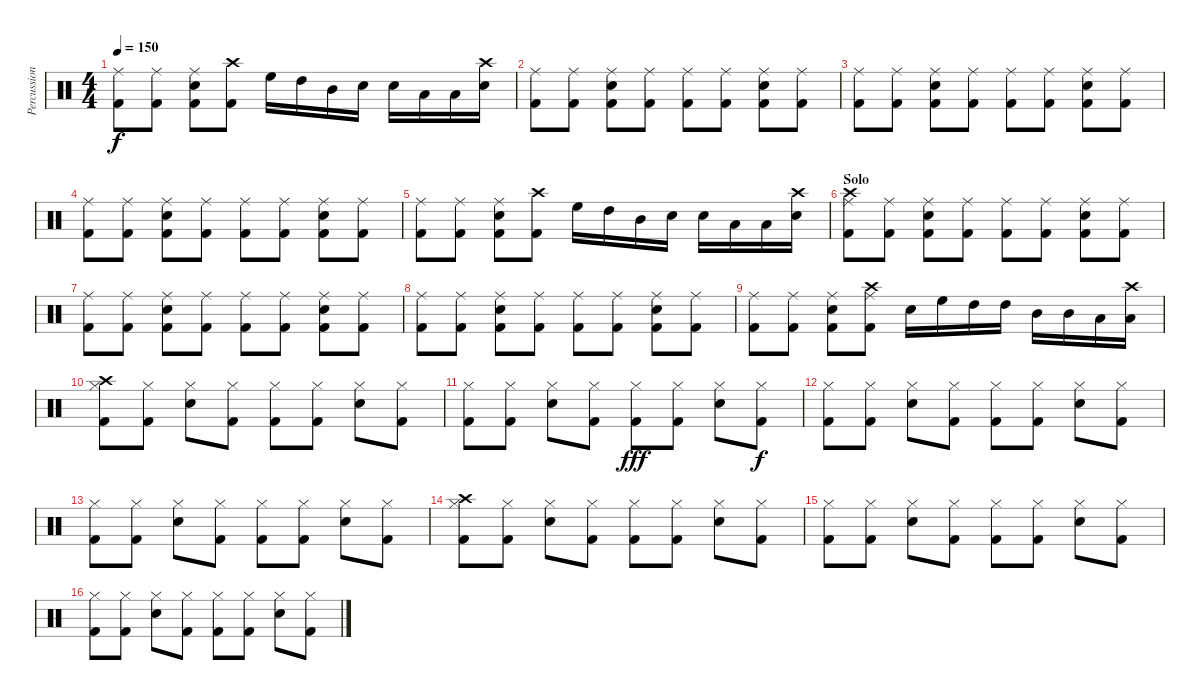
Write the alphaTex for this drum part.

\track ("Percussion" "Percussion") {instrument percussion}
\staff {score}
\articulation defaults
\ts (4 4)
\tempo 150
\clef neutral
\ks c
("Ride (middle)" "Kick (hit) 2").8{dy f} ("Ride (middle)" "Kick (hit) 2").8 ("Ride (middle)" "Snare (hit) 2" "Kick (hit) 2").8 ("Crash high (hit)" "Kick (hit) 2").8 "High Floor Tom (hit)".16 "High Tom (hit)".16 "Mid Tom (hit)".16 "Snare (hit) 2".16 "Snare (hit) 2".16 "Low Tom (hit)".16 "Low Tom (hit)".16 ("Crash high (hit)" "Snare (hit) 2").16 |
("Ride (middle)" "Kick (hit) 2").8 ("Ride (middle)" "Kick (hit) 2").8 ("Ride (middle)" "Snare (hit) 2" "Kick (hit) 2").8 ("Ride (middle)" "Kick (hit) 2").8 ("Ride (middle)" "Kick (hit) 2").8 ("Ride (middle)" "Kick (hit) 2").8 ("Ride (middle)" "Snare (hit) 2" "Kick (hit) 2").8 ("Ride (middle)" "Kick (hit) 2").8 |
("Ride (middle)" "Kick (hit) 2").8 ("Ride (middle)" "Kick (hit) 2").8 ("Ride (middle)" "Snare (hit) 2" "Kick (hit) 2").8 ("Ride (middle)" "Kick (hit) 2").8 ("Ride (middle)" "Kick (hit) 2").8 ("Ride (middle)" "Kick (hit) 2").8 ("Ride (middle)" "Snare (hit) 2" "Kick (hit) 2").8 ("Ride (middle)" "Kick (hit) 2").8 |
("Ride (middle)" "Kick (hit) 2").8 ("Ride (middle)" "Kick (hit) 2").8 ("Ride (middle)" "Snare (hit) 2" "Kick (hit) 2").8 ("Ride (middle)" "Kick (hit) 2").8 ("Ride (middle)" "Kick (hit) 2").8 ("Ride (middle)" "Kick (hit) 2").8 ("Ride (middle)" "Snare (hit) 2" "Kick (hit) 2").8 ("Ride (middle)" "Kick (hit) 2").8 |
("Ride (middle)" "Kick (hit) 2").8 ("Ride (middle)" "Kick (hit) 2").8 ("Ride (middle)" "Snare (hit) 2" "Kick (hit) 2").8 ("Crash high (hit)" "Kick (hit) 2").8 "High Floor Tom (hit)".16 "High Tom (hit)".16 "Mid Tom (hit)".16 "Snare (hit) 2".16 "Snare (hit) 2".16 "Low Tom (hit)".16 "Low Tom (hit)".16 ("Crash high (hit)" "Snare (hit) 2").16 |
\section ("" "Solo")
("Crash high (hit)" "Ride (middle)" "Kick (hit) 2").8 ("Ride (middle)" "Kick (hit) 2").8 ("Ride (middle)" "Snare (hit) 2" "Kick (hit) 2").8 ("Ride (middle)" "Kick (hit) 2").8 ("Ride (middle)" "Kick (hit) 2").8 ("Ride (middle)" "Kick (hit) 2").8 ("Ride (middle)" "Snare (hit) 2" "Kick (hit) 2").8 ("Ride (middle)" "Kick (hit) 2").8 |
("Ride (middle)" "Kick (hit) 2").8 ("Ride (middle)" "Kick (hit) 2").8 ("Ride (middle)" "Snare (hit) 2" "Kick (hit) 2").8 ("Ride (middle)" "Kick (hit) 2").8 ("Ride (middle)" "Kick (hit) 2").8 ("Ride (middle)" "Kick (hit) 2").8 ("Ride (middle)" "Snare (hit) 2" "Kick (hit) 2").8 ("Ride (middle)" "Kick (hit) 2").8 |
("Ride (middle)" "Kick (hit) 2").8 ("Ride (middle)" "Kick (hit) 2").8 ("Ride (middle)" "Snare (hit) 2" "Kick (hit) 2").8 ("Ride (middle)" "Kick (hit) 2").8 ("Ride (middle)" "Kick (hit) 2").8 ("Ride (middle)" "Kick (hit) 2").8 ("Ride (middle)" "Snare (hit) 2" "Kick (hit) 2").8 ("Ride (middle)" "Kick (hit) 2").8 |
("Ride (middle)" "Kick (hit) 2").8 ("Ride (middle)" "Kick (hit) 2").8 ("Ride (middle)" "Snare (hit) 2" "Kick (hit) 2").8 ("Ride (middle)" "Crash high (hit)" "Kick (hit) 2").8 "Snare (hit) 2".16 "High Floor Tom (hit)".16 "High Tom (hit)".16 "High Tom (hit)".16 "Mid Tom (hit)".16 "Mid Tom (hit)".16 "Low Tom (hit)".16 ("Crash high (hit)" "Low Tom (hit)").16 |
("Crash high (hit)" "Hi-Hat (closed)" "Kick (hit) 2").8 ("Hi-Hat (closed)" "Kick (hit) 2").8 ("Hi-Hat (closed)" "Snare (hit) 2").8 ("Hi-Hat (closed)" "Kick (hit) 2").8 ("Hi-Hat (closed)" "Kick (hit) 2").8 ("Hi-Hat (closed)" "Kick (hit) 2").8 ("Hi-Hat (closed)" "Snare (hit) 2").8 ("Hi-Hat (closed)" "Kick (hit) 2").8 |
("Hi-Hat (closed)" "Kick (hit) 2").8 ("Hi-Hat (closed)" "Kick (hit) 2").8 ("Hi-Hat (closed)" "Snare (hit) 2").8 ("Hi-Hat (closed)" "Kick (hit) 2").8 ("Hi-Hat (closed)" "Kick (hit) 2").8{dy fff} ("Hi-Hat (closed)" "Kick (hit) 2").8 ("Hi-Hat (closed)" "Snare (hit) 2").8 ("Hi-Hat (closed)" "Kick (hit) 2").8{dy f} |
("Hi-Hat (closed)" "Kick (hit) 2").8 ("Hi-Hat (closed)" "Kick (hit) 2").8 ("Hi-Hat (closed)" "Snare (hit) 2").8 ("Hi-Hat (closed)" "Kick (hit) 2").8 ("Hi-Hat (closed)" "Kick (hit) 2").8 ("Hi-Hat (closed)" "Kick (hit) 2").8 ("Hi-Hat (closed)" "Snare (hit) 2").8 ("Hi-Hat (closed)" "Kick (hit) 2").8 |
("Hi-Hat (closed)" "Kick (hit) 2").8 ("Hi-Hat (closed)" "Kick (hit) 2").8 ("Hi-Hat (closed)" "Snare (hit) 2").8 ("Hi-Hat (closed)" "Kick (hit) 2").8 ("Hi-Hat (closed)" "Kick (hit) 2").8 ("Hi-Hat (closed)" "Kick (hit) 2").8 ("Hi-Hat (closed)" "Snare (hit) 2").8 ("Hi-Hat (closed)" "Kick (hit) 2").8 |
("Crash high (hit)" "Hi-Hat (closed)" "Kick (hit) 2").8 ("Hi-Hat (closed)" "Kick (hit) 2").8 ("Hi-Hat (closed)" "Snare (hit) 2").8 ("Hi-Hat (closed)" "Kick (hit) 2").8 ("Hi-Hat (closed)" "Kick (hit) 2").8 ("Hi-Hat (closed)" "Kick (hit) 2").8 ("Hi-Hat (closed)" "Snare (hit) 2").8 ("Hi-Hat (closed)" "Kick (hit) 2").8 |
("Hi-Hat (closed)" "Kick (hit) 2").8 ("Hi-Hat (closed)" "Kick (hit) 2").8 ("Hi-Hat (closed)" "Snare (hit) 2").8 ("Hi-Hat (closed)" "Kick (hit) 2").8 ("Hi-Hat (closed)" "Kick (hit) 2").8 ("Hi-Hat (closed)" "Kick (hit) 2").8 ("Hi-Hat (closed)" "Snare (hit) 2").8 ("Hi-Hat (closed)" "Kick (hit) 2").8 |
("Hi-Hat (closed)" "Kick (hit) 2").8 ("Hi-Hat (closed)" "Kick (hit) 2").8 ("Hi-Hat (closed)" "Snare (hit) 2").8 ("Hi-Hat (closed)" "Kick (hit) 2").8 ("Hi-Hat (closed)" "Kick (hit) 2").8 ("Hi-Hat (closed)" "Kick (hit) 2").8 ("Hi-Hat (closed)" "Snare (hit) 2").8 ("Hi-Hat (closed)" "Kick (hit) 2").8
